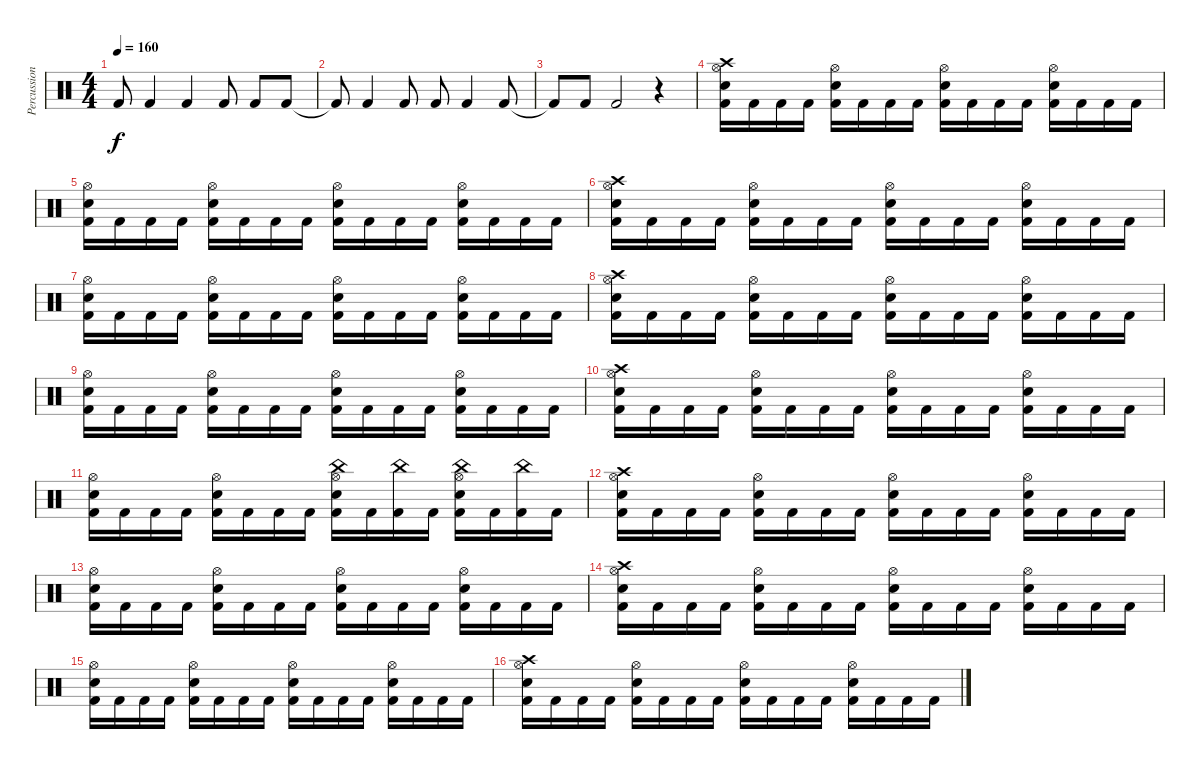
\track ("Percussion" "Percussion") {instrument percussion}
\staff {score}
\articulation defaults
\ts (4 4)
\tempo 160
\clef neutral
\ks c "Kick (hit) 2".8{dy f} "Kick (hit) 2".4 "Kick (hit) 2".4 "Kick (hit) 2".8 "Kick (hit) 2".8 "Kick (hit) 2".8
|
"Kick (hit) 2"{t}.8 "Kick (hit) 2".4 "Kick (hit) 2".8 "Kick (hit) 2".8 "Kick (hit) 2".4 "Kick (hit) 2".8 |
"Kick (hit) 2"{t}.8 "Kick (hit) 2".8 "Kick (hit) 2".2 r.4 |
("Kick (hit) 2" "Crash high (hit)" "Electric Snare (hit)" "Hi-Hat (open)").16 "Kick (hit) 2".16 "Kick (hit) 2".16 "Kick (hit) 2".16 ("Kick (hit) 2" "Electric Snare (hit)" "Hi-Hat (open)").16 "Kick (hit) 2".16 "Kick (hit) 2".16 "Kick (hit) 2".16 ("Kick (hit) 2" "Electric Snare (hit)" "Hi-Hat (open)").16 "Kick (hit) 2".16 "Kick (hit) 2".16 "Kick (hit) 2".16 ("Kick (hit) 2" "Electric Snare (hit)" "Hi-Hat (open)").16 "Kick (hit) 2".16 "Kick (hit) 2".16 "Kick (hit) 2".16 |
("Kick (hit) 2" "Electric Snare (hit)" "Hi-Hat (open)").16 "Kick (hit) 2".16 "Kick (hit) 2".16 "Kick (hit) 2".16 ("Kick (hit) 2" "Electric Snare (hit)" "Hi-Hat (open)").16 "Kick (hit) 2".16 "Kick (hit) 2".16 "Kick (hit) 2".16 ("Kick (hit) 2" "Electric Snare (hit)" "Hi-Hat (open)").16 "Kick (hit) 2".16 "Kick (hit) 2".16 "Kick (hit) 2".16 ("Kick (hit) 2" "Electric Snare (hit)" "Hi-Hat (open)").16 "Kick (hit) 2".16 "Kick (hit) 2".16 "Kick (hit) 2".16 |
("Kick (hit) 2" "Crash high (hit)" "Electric Snare (hit)" "Hi-Hat (open)").16 "Kick (hit) 2".16 "Kick (hit) 2".16 "Kick (hit) 2".16 ("Kick (hit) 2" "Electric Snare (hit)" "Hi-Hat (open)").16 "Kick (hit) 2".16 "Kick (hit) 2".16 "Kick (hit) 2".16 ("Kick (hit) 2" "Electric Snare (hit)" "Hi-Hat (open)").16 "Kick (hit) 2".16 "Kick (hit) 2".16 "Kick (hit) 2".16 ("Kick (hit) 2" "Electric Snare (hit)" "Hi-Hat (open)").16 "Kick (hit) 2".16 "Kick (hit) 2".16 "Kick (hit) 2".16 |
("Kick (hit) 2" "Electric Snare (hit)" "Hi-Hat (open)").16 "Kick (hit) 2".16 "Kick (hit) 2".16 "Kick (hit) 2".16 ("Kick (hit) 2" "Electric Snare (hit)" "Hi-Hat (open)").16 "Kick (hit) 2".16 "Kick (hit) 2".16 "Kick (hit) 2".16 ("Kick (hit) 2" "Electric Snare (hit)" "Hi-Hat (open)").16 "Kick (hit) 2".16 "Kick (hit) 2".16 "Kick (hit) 2".16 ("Kick (hit) 2" "Electric Snare (hit)" "Hi-Hat (open)").16 "Kick (hit) 2".16 "Kick (hit) 2".16 "Kick (hit) 2".16 |
("Kick (hit) 2" "Crash high (hit)" "Electric Snare (hit)" "Hi-Hat (open)").16 "Kick (hit) 2".16 "Kick (hit) 2".16 "Kick (hit) 2".16 ("Kick (hit) 2" "Electric Snare (hit)" "Hi-Hat (open)").16 "Kick (hit) 2".16 "Kick (hit) 2".16 "Kick (hit) 2".16 ("Kick (hit) 2" "Electric Snare (hit)" "Hi-Hat (open)").16 "Kick (hit) 2".16 "Kick (hit) 2".16 "Kick (hit) 2".16 ("Kick (hit) 2" "Electric Snare (hit)" "Hi-Hat (open)").16 "Kick (hit) 2".16 "Kick (hit) 2".16 "Kick (hit) 2".16 |
("Kick (hit) 2" "Electric Snare (hit)" "Hi-Hat (open)").16 "Kick (hit) 2".16 "Kick (hit) 2".16 "Kick (hit) 2".16 ("Kick (hit) 2" "Electric Snare (hit)" "Hi-Hat (open)").16 "Kick (hit) 2".16 "Kick (hit) 2".16 "Kick (hit) 2".16 ("Kick (hit) 2" "Electric Snare (hit)" "Hi-Hat (open)").16 "Kick (hit) 2".16 "Kick (hit) 2".16 "Kick (hit) 2".16 ("Kick (hit) 2" "Electric Snare (hit)" "Hi-Hat (open)").16 "Kick (hit) 2".16 "Kick (hit) 2".16 "Kick (hit) 2".16 |
("Kick (hit) 2" "Crash high (hit)" "Electric Snare (hit)" "Hi-Hat (open)").16 "Kick (hit) 2".16 "Kick (hit) 2".16 "Kick (hit) 2".16 ("Kick (hit) 2" "Electric Snare (hit)" "Hi-Hat (open)").16 "Kick (hit) 2".16 "Kick (hit) 2".16 "Kick (hit) 2".16 ("Kick (hit) 2" "Electric Snare (hit)" "Hi-Hat (open)").16 "Kick (hit) 2".16 "Kick (hit) 2".16 "Kick (hit) 2".16 ("Kick (hit) 2" "Electric Snare (hit)" "Hi-Hat (open)").16 "Kick (hit) 2".16 "Kick (hit) 2".16 "Kick (hit) 2".16 |
("Kick (hit) 2" "Electric Snare (hit)" "Hi-Hat (open)").16 "Kick (hit) 2".16 "Kick (hit) 2".16 "Kick (hit) 2".16 ("Kick (hit) 2" "Electric Snare (hit)" "Hi-Hat (open)").16 "Kick (hit) 2".16 "Kick (hit) 2".16 "Kick (hit) 2".16 ("Kick (hit) 2" "China (hit)" "Electric Snare (hit)" "Hi-Hat (open)").16 "Kick (hit) 2".16 ("Kick (hit) 2" "China (hit)").16 "Kick (hit) 2".16 ("Kick (hit) 2" "China (hit)" "Electric Snare (hit)" "Hi-Hat (open)").16 "Kick (hit) 2".16 ("Kick (hit) 2" "China (hit)").16 "Kick (hit) 2".16 |
("Kick (hit) 2" "Crash high (hit)" "Electric Snare (hit)" "Hi-Hat (open)").16 "Kick (hit) 2".16 "Kick (hit) 2".16 "Kick (hit) 2".16 ("Kick (hit) 2" "Electric Snare (hit)" "Hi-Hat (open)").16 "Kick (hit) 2".16 "Kick (hit) 2".16 "Kick (hit) 2".16 ("Kick (hit) 2" "Electric Snare (hit)" "Hi-Hat (open)").16 "Kick (hit) 2".16 "Kick (hit) 2".16 "Kick (hit) 2".16 ("Kick (hit) 2" "Electric Snare (hit)" "Hi-Hat (open)").16 "Kick (hit) 2".16 "Kick (hit) 2".16 "Kick (hit) 2".16 |
("Kick (hit) 2" "Electric Snare (hit)" "Hi-Hat (open)").16 "Kick (hit) 2".16 "Kick (hit) 2".16 "Kick (hit) 2".16 ("Kick (hit) 2" "Electric Snare (hit)" "Hi-Hat (open)").16 "Kick (hit) 2".16 "Kick (hit) 2".16 "Kick (hit) 2".16 ("Kick (hit) 2" "Electric Snare (hit)" "Hi-Hat (open)").16 "Kick (hit) 2".16 "Kick (hit) 2".16 "Kick (hit) 2".16 ("Kick (hit) 2" "Electric Snare (hit)" "Hi-Hat (open)").16 "Kick (hit) 2".16 "Kick (hit) 2".16 "Kick (hit) 2".16 |
("Kick (hit) 2" "Crash high (hit)" "Electric Snare (hit)" "Hi-Hat (open)").16 "Kick (hit) 2".16 "Kick (hit) 2".16 "Kick (hit) 2".16 ("Kick (hit) 2" "Electric Snare (hit)" "Hi-Hat (open)").16 "Kick (hit) 2".16 "Kick (hit) 2".16 "Kick (hit) 2".16 ("Kick (hit) 2" "Electric Snare (hit)" "Hi-Hat (open)").16 "Kick (hit) 2".16 "Kick (hit) 2".16 "Kick (hit) 2".16 ("Kick (hit) 2" "Electric Snare (hit)" "Hi-Hat (open)").16 "Kick (hit) 2".16 "Kick (hit) 2".16 "Kick (hit) 2".16 |
("Kick (hit) 2" "Electric Snare (hit)" "Hi-Hat (open)").16 "Kick (hit) 2".16 "Kick (hit) 2".16 "Kick (hit) 2".16 ("Kick (hit) 2" "Electric Snare (hit)" "Hi-Hat (open)").16 "Kick (hit) 2".16 "Kick (hit) 2".16 "Kick (hit) 2".16 ("Kick (hit) 2" "Electric Snare (hit)" "Hi-Hat (open)").16 "Kick (hit) 2".16 "Kick (hit) 2".16 "Kick (hit) 2".16 ("Kick (hit) 2" "Electric Snare (hit)" "Hi-Hat (open)").16 "Kick (hit) 2".16 "Kick (hit) 2".16 "Kick (hit) 2".16 |
("Kick (hit) 2" "Crash high (hit)" "Electric Snare (hit)" "Hi-Hat (open)").16 "Kick (hit) 2".16 "Kick (hit) 2".16 "Kick (hit) 2".16 ("Kick (hit) 2" "Electric Snare (hit)" "Hi-Hat (open)").16 "Kick (hit) 2".16 "Kick (hit) 2".16 "Kick (hit) 2".16 ("Kick (hit) 2" "Electric Snare (hit)" "Hi-Hat (open)").16 "Kick (hit) 2".16 "Kick (hit) 2".16 "Kick (hit) 2".16 ("Kick (hit) 2" "Electric Snare (hit)" "Hi-Hat (open)").16 "Kick (hit) 2".16 "Kick (hit) 2".16 "Kick (hit) 2".16
